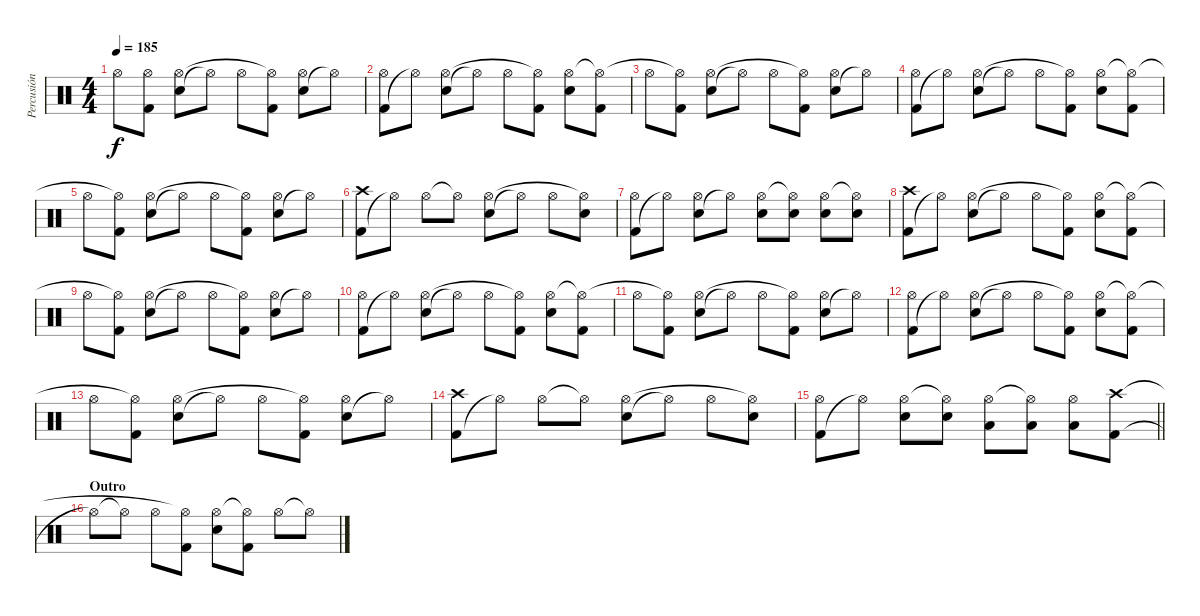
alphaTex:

\track ("Percusión" "Percusión") {instrument percussion}
\staff {score}
\articulation defaults
\ts (4 4)
\tempo 185
\clef neutral
\ks c "Hi-Hat (open)".8{dy f}
("Kick (hit) 2" "Hi-Hat (open)"{t}).8 ("Snare (hit) 2" "Hi-Hat (open)").8 "Hi-Hat (open)"{t}.8 "Hi-Hat (open)".8 ("Kick (hit) 2" "Hi-Hat (open)"{t}).8 ("Snare (hit) 2" "Hi-Hat (open)").8 "Hi-Hat (open)"{t}.8 |
("Kick (hit) 2" "Hi-Hat (open)").8 "Hi-Hat (open)"{t}.8 ("Snare (hit) 2" "Hi-Hat (open)").8 "Hi-Hat (open)"{t}.8 "Hi-Hat (open)".8 ("Kick (hit) 2" "Hi-Hat (open)"{t}).8 ("Snare (hit) 2" "Hi-Hat (open)").8 ("Kick (hit) 2" "Hi-Hat (open)"{t}).8 |
"Hi-Hat (open)".8 ("Kick (hit) 2" "Hi-Hat (open)"{t}).8 ("Snare (hit) 2" "Hi-Hat (open)").8 "Hi-Hat (open)"{t}.8 "Hi-Hat (open)".8 ("Kick (hit) 2" "Hi-Hat (open)"{t}).8 ("Snare (hit) 2" "Hi-Hat (open)").8 "Hi-Hat (open)"{t}.8 |
("Kick (hit) 2" "Hi-Hat (open)").8 "Hi-Hat (open)"{t}.8 ("Snare (hit) 2" "Hi-Hat (open)").8 "Hi-Hat (open)"{t}.8 "Hi-Hat (open)".8 ("Kick (hit) 2" "Hi-Hat (open)"{t}).8 ("Snare (hit) 2" "Hi-Hat (open)").8 ("Kick (hit) 2" "Hi-Hat (open)"{t}).8 |
"Hi-Hat (open)".8 ("Kick (hit) 2" "Hi-Hat (open)"{t}).8 ("Snare (hit) 2" "Hi-Hat (open)").8 "Hi-Hat (open)"{t}.8 "Hi-Hat (open)".8 ("Kick (hit) 2" "Hi-Hat (open)"{t}).8 ("Snare (hit) 2" "Hi-Hat (open)").8 "Hi-Hat (open)"{t}.8 |
("Kick (hit) 2" "Crash high (hit)").8 "Hi-Hat (open)"{t}.8 "Hi-Hat (open)".8 "Hi-Hat (open)"{t}.8 ("Snare (hit) 2" "Hi-Hat (open)").8 "Hi-Hat (open)"{t}.8 "Hi-Hat (open)".8 ("Snare (hit) 2" "Hi-Hat (open)"{t}).8 |
("Kick (hit) 2" "Hi-Hat (open)").8 "Hi-Hat (open)"{t}.8 ("Snare (hit) 2" "Hi-Hat (open)").8 "Hi-Hat (open)"{t}.8 ("Snare (hit) 2" "Hi-Hat (open)").8 ("Snare (hit) 2" "Hi-Hat (open)"{t}).8 ("Snare (hit) 2" "Hi-Hat (open)").8 ("Snare (hit) 2" "Hi-Hat (open)"{t}).8 |
("Kick (hit) 2" "Crash high (hit)").8 "Hi-Hat (open)"{t}.8 ("Snare (hit) 2" "Hi-Hat (open)").8 "Hi-Hat (open)"{t}.8 "Hi-Hat (open)".8 ("Kick (hit) 2" "Hi-Hat (open)"{t}).8 ("Snare (hit) 2" "Hi-Hat (open)").8 ("Kick (hit) 2" "Hi-Hat (open)"{t}).8 |
"Hi-Hat (open)".8 ("Kick (hit) 2" "Hi-Hat (open)"{t}).8 ("Snare (hit) 2" "Hi-Hat (open)").8 "Hi-Hat (open)"{t}.8 "Hi-Hat (open)".8 ("Kick (hit) 2" "Hi-Hat (open)"{t}).8 ("Snare (hit) 2" "Hi-Hat (open)").8 "Hi-Hat (open)"{t}.8 |
("Kick (hit) 2" "Hi-Hat (open)").8 "Hi-Hat (open)"{t}.8 ("Snare (hit) 2" "Hi-Hat (open)").8 "Hi-Hat (open)"{t}.8 "Hi-Hat (open)".8 ("Kick (hit) 2" "Hi-Hat (open)"{t}).8 ("Snare (hit) 2" "Hi-Hat (open)").8 ("Kick (hit) 2" "Hi-Hat (open)"{t}).8 |
"Hi-Hat (open)".8 ("Kick (hit) 2" "Hi-Hat (open)"{t}).8 ("Snare (hit) 2" "Hi-Hat (open)").8 "Hi-Hat (open)"{t}.8 "Hi-Hat (open)".8 ("Kick (hit) 2" "Hi-Hat (open)"{t}).8 ("Snare (hit) 2" "Hi-Hat (open)").8 "Hi-Hat (open)"{t}.8 |
("Kick (hit) 2" "Hi-Hat (open)").8 "Hi-Hat (open)"{t}.8 ("Snare (hit) 2" "Hi-Hat (open)").8 "Hi-Hat (open)"{t}.8 "Hi-Hat (open)".8 ("Kick (hit) 2" "Hi-Hat (open)"{t}).8 ("Snare (hit) 2" "Hi-Hat (open)").8 ("Kick (hit) 2" "Hi-Hat (open)"{t}).8 |
"Hi-Hat (open)".8 ("Kick (hit) 2" "Hi-Hat (open)"{t}).8 ("Snare (hit) 2" "Hi-Hat (open)").8 "Hi-Hat (open)"{t}.8 "Hi-Hat (open)".8 ("Kick (hit) 2" "Hi-Hat (open)"{t}).8 ("Snare (hit) 2" "Hi-Hat (open)").8 "Hi-Hat (open)"{t}.8 |
("Kick (hit) 2" "Crash high (hit)").8 "Hi-Hat (open)"{t}.8 "Hi-Hat (open)".8 "Hi-Hat (open)"{t}.8 ("Snare (hit) 2" "Hi-Hat (open)").8 "Hi-Hat (open)"{t}.8 "Hi-Hat (open)".8 ("Snare (hit) 2" "Hi-Hat (open)"{t}).8 |
\barLineRight lightlight
("Kick (hit) 2" "Hi-Hat (open)").8 "Hi-Hat (open)"{t}.8 ("Snare (hit) 2" "Hi-Hat (open)").8 ("Snare (hit) 2" "Hi-Hat (open)"{t}).8 ("Low Tom (hit)" "Hi-Hat (open)").8 ("Low Tom (hit)" "Hi-Hat (open)"{t}).8 ("Low Floor Tom (hit)" "Hi-Hat (open)").8 ("Kick (hit) 2" "Crash high (hit)").8 |
\section ("" "Outro")
"Hi-Hat (open)"{t}.8 "Hi-Hat (open)"{t}.8 "Hi-Hat (open)".8 ("Kick (hit) 2" "Hi-Hat (open)"{t}).8 ("Snare (hit) 2" "Hi-Hat (open)").8 ("Kick (hit) 2" "Hi-Hat (open)"{t}).8 "Hi-Hat (open)".8 "Hi-Hat (open)"{t}.8
